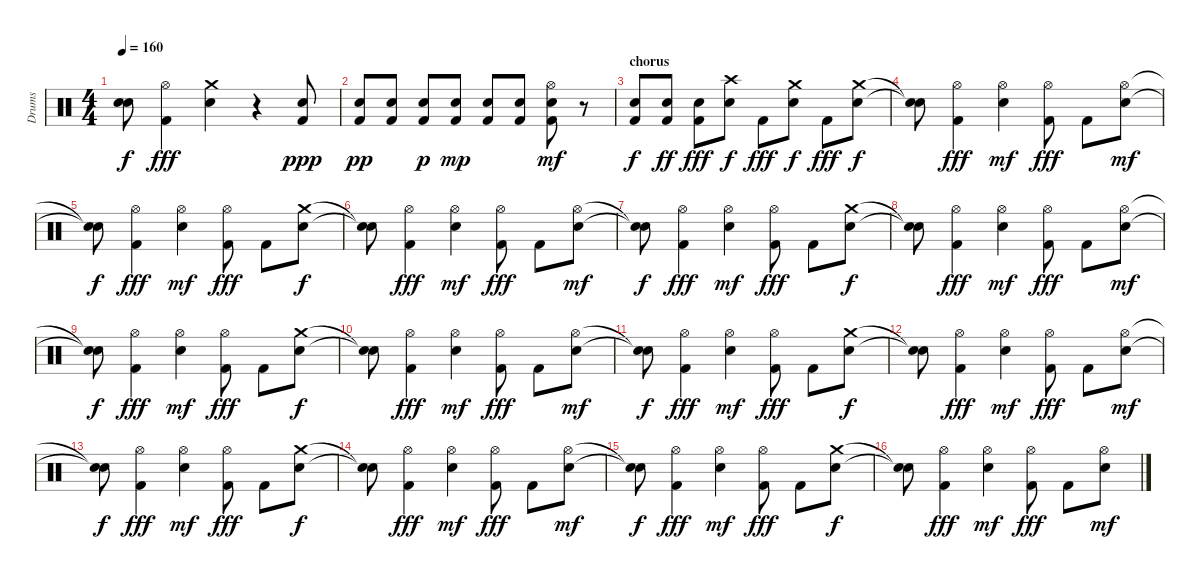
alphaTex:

\track ("Drums" "Drums") {instrument percussion}
\staff {score}
\articulation defaults
\ts (4 4)
\tempo 160
\clef neutral
\ks c
("Snare (hit)"{t} "Snare (hit)"{t}).8{dy f} ("Hi-Hat (open)" "Kick (hit) 2").4{dy fff} ("Crash medium (hit)" "Electric Snare (hit)").4 r.4 ("Kick (hit) 2" "Electric Snare (hit)").8{dy ppp} |
("Electric Snare (hit)" "Kick (hit) 2").8{dy pp} ("Electric Snare (hit)" "Kick (hit) 2").8 ("Electric Snare (hit)" "Kick (hit) 2").8{dy p} ("Electric Snare (hit)" "Kick (hit) 2").8{dy mp} ("Electric Snare (hit)" "Kick (hit) 2").8 ("Electric Snare (hit)" "Kick (hit) 2").8 ("Hi-Hat (open)" "Electric Snare (hit)" "Kick (hit) 2").8{dy mf} r.8 |
\section ("" "chorus")
("Kick (hit) 2" "Electric Snare (hit)").8{dy f} ("Kick (hit) 2" "Electric Snare (hit)").8{dy ff} ("Kick (hit) 2" "Electric Snare (hit)").8{dy fff} ("Crash high (hit)" "Electric Snare (hit)").8{dy f} "Kick (hit) 2".8{dy fff} ("Crash medium (hit)" "Electric Snare (hit)").8{dy f} "Kick (hit) 2".8{dy fff} ("Crash medium (hit)" "Electric Snare (hit)").8{dy f} |
("Snare (hit)"{t} "Snare (hit)"{t}).8 ("Hi-Hat (open)" "Kick (hit) 2").4{dy fff} ("Hi-Hat (open)" "Electric Snare (hit)").4{dy mf} ("Hi-Hat (open)" "Kick (hit) 2").8{dy fff} "Kick (hit) 2".8 ("Hi-Hat (open)" "Electric Snare (hit)").8{dy mf} |
("Snare (hit)"{t} "Snare (hit)"{t}).8{dy f} ("Hi-Hat (open)" "Kick (hit) 2").4{dy fff} ("Hi-Hat (open)" "Electric Snare (hit)").4{dy mf} ("Hi-Hat (open)" "Kick (hit) 2").8{dy fff} "Kick (hit) 2".8 ("Crash medium (hit)" "Electric Snare (hit)").8{dy f} |
("Snare (hit)"{t} "Snare (hit)"{t}).8 ("Hi-Hat (open)" "Kick (hit) 2").4{dy fff} ("Hi-Hat (open)" "Electric Snare (hit)").4{dy mf} ("Hi-Hat (open)" "Kick (hit) 2").8{dy fff} "Kick (hit) 2".8 ("Hi-Hat (open)" "Electric Snare (hit)").8{dy mf} |
("Snare (hit)"{t} "Snare (hit)"{t}).8{dy f} ("Hi-Hat (open)" "Kick (hit) 2").4{dy fff} ("Hi-Hat (open)" "Electric Snare (hit)").4{dy mf} ("Hi-Hat (open)" "Kick (hit) 2").8{dy fff} "Kick (hit) 2".8 ("Crash medium (hit)" "Electric Snare (hit)").8{dy f} |
("Snare (hit)"{t} "Snare (hit)"{t}).8 ("Hi-Hat (open)" "Kick (hit) 2").4{dy fff} ("Hi-Hat (open)" "Electric Snare (hit)").4{dy mf} ("Hi-Hat (open)" "Kick (hit) 2").8{dy fff} "Kick (hit) 2".8 ("Hi-Hat (open)" "Electric Snare (hit)").8{dy mf} |
("Snare (hit)"{t} "Snare (hit)"{t}).8{dy f} ("Hi-Hat (open)" "Kick (hit) 2").4{dy fff} ("Hi-Hat (open)" "Electric Snare (hit)").4{dy mf} ("Hi-Hat (open)" "Kick (hit) 2").8{dy fff} "Kick (hit) 2".8 ("Crash medium (hit)" "Electric Snare (hit)").8{dy f} |
("Snare (hit)"{t} "Snare (hit)"{t}).8 ("Hi-Hat (open)" "Kick (hit) 2").4{dy fff} ("Hi-Hat (open)" "Electric Snare (hit)").4{dy mf} ("Hi-Hat (open)" "Kick (hit) 2").8{dy fff} "Kick (hit) 2".8 ("Hi-Hat (open)" "Electric Snare (hit)").8{dy mf} |
("Snare (hit)"{t} "Snare (hit)"{t}).8{dy f} ("Hi-Hat (open)" "Kick (hit) 2").4{dy fff} ("Hi-Hat (open)" "Electric Snare (hit)").4{dy mf} ("Hi-Hat (open)" "Kick (hit) 2").8{dy fff} "Kick (hit) 2".8 ("Crash medium (hit)" "Electric Snare (hit)").8{dy f} |
("Snare (hit)"{t} "Snare (hit)"{t}).8 ("Hi-Hat (open)" "Kick (hit) 2").4{dy fff} ("Hi-Hat (open)" "Electric Snare (hit)").4{dy mf} ("Hi-Hat (open)" "Kick (hit) 2").8{dy fff} "Kick (hit) 2".8 ("Hi-Hat (open)" "Electric Snare (hit)").8{dy mf} |
("Snare (hit)"{t} "Snare (hit)"{t}).8{dy f} ("Hi-Hat (open)" "Kick (hit) 2").4{dy fff} ("Hi-Hat (open)" "Electric Snare (hit)").4{dy mf} ("Hi-Hat (open)" "Kick (hit) 2").8{dy fff} "Kick (hit) 2".8 ("Crash medium (hit)" "Electric Snare (hit)").8{dy f} |
("Snare (hit)"{t} "Snare (hit)"{t}).8 ("Hi-Hat (open)" "Kick (hit) 2").4{dy fff} ("Hi-Hat (open)" "Electric Snare (hit)").4{dy mf} ("Hi-Hat (open)" "Kick (hit) 2").8{dy fff} "Kick (hit) 2".8 ("Hi-Hat (open)" "Electric Snare (hit)").8{dy mf} |
("Snare (hit)"{t} "Snare (hit)"{t}).8{dy f} ("Hi-Hat (open)" "Kick (hit) 2").4{dy fff} ("Hi-Hat (open)" "Electric Snare (hit)").4{dy mf} ("Hi-Hat (open)" "Kick (hit) 2").8{dy fff} "Kick (hit) 2".8 ("Crash medium (hit)" "Electric Snare (hit)").8{dy f} |
("Snare (hit)"{t} "Snare (hit)"{t}).8 ("Hi-Hat (open)" "Kick (hit) 2").4{dy fff} ("Hi-Hat (open)" "Electric Snare (hit)").4{dy mf} ("Hi-Hat (open)" "Kick (hit) 2").8{dy fff} "Kick (hit) 2".8 ("Hi-Hat (open)" "Electric Snare (hit)").8{dy mf}
